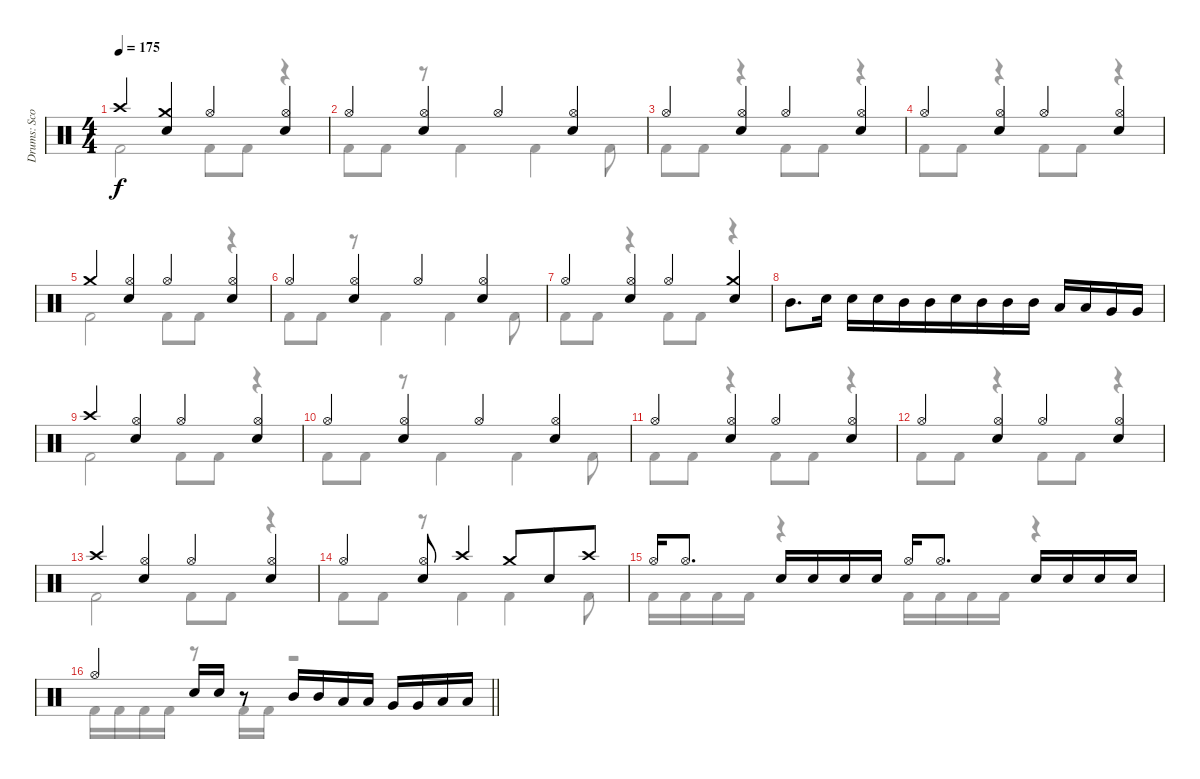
\track ("Drums: Scott" "Drums: Sco") {instrument percussion}
\staff {score}
\articulation defaults
\voice
\ts (4 4)
\tempo 175
\clef neutral
\ks c "Crash high (hit)".4{dy f}
("Crash medium (hit)" "Snare (hit) 2").4 "Hi-Hat (open)".4 ("Hi-Hat (open)" "Snare (hit) 2").4 |
"Hi-Hat (open)".4 ("Hi-Hat (open)" "Snare (hit) 2").4 "Hi-Hat (open)".4 ("Hi-Hat (open)" "Snare (hit) 2").4 |
"Hi-Hat (open)".4 ("Hi-Hat (open)" "Snare (hit) 2").4 "Hi-Hat (open)".4 ("Hi-Hat (open)" "Snare (hit) 2").4 |
"Hi-Hat (open)".4 ("Hi-Hat (open)" "Snare (hit) 2").4 "Hi-Hat (open)".4 ("Hi-Hat (open)" "Snare (hit) 2").4 |
"Crash medium (hit)".4 ("Hi-Hat (open)" "Snare (hit) 2").4 "Hi-Hat (open)".4 ("Hi-Hat (open)" "Snare (hit) 2").4 |
"Hi-Hat (open)".4 ("Hi-Hat (open)" "Snare (hit) 2").4 "Hi-Hat (open)".4 ("Hi-Hat (open)" "Snare (hit) 2").4 |
"Hi-Hat (open)".4 ("Hi-Hat (open)" "Snare (hit) 2").4 "Hi-Hat (open)".4 ("Crash medium (hit)" "Snare (hit) 2").4 |
"Mid Tom (hit)".8{d} "Snare (hit) 2".16 "Snare (hit) 2".16 "Snare (hit) 2".16 "Mid Tom (hit)".16 "Mid Tom (hit)".16{beam merge} "Snare (hit) 2".16 "Mid Tom (hit)".16 "Mid Tom (hit)".16 "Mid Tom (hit)".16 "Low Tom (hit)".16 "Low Tom (hit)".16 "Very Low Tom (hit)".16 "Very Low Tom (hit)".16 |
"Crash high (hit)".4 ("Hi-Hat (open)" "Snare (hit) 2").4 "Hi-Hat (open)".4 ("Hi-Hat (open)" "Snare (hit) 2").4 |
"Hi-Hat (open)".4 ("Hi-Hat (open)" "Snare (hit) 2").4 "Hi-Hat (open)".4 ("Hi-Hat (open)" "Snare (hit) 2").4 |
"Hi-Hat (open)".4 ("Hi-Hat (open)" "Snare (hit) 2").4 "Hi-Hat (open)".4 ("Hi-Hat (open)" "Snare (hit) 2").4 |
"Hi-Hat (open)".4 ("Hi-Hat (open)" "Snare (hit) 2").4 "Hi-Hat (open)".4 ("Hi-Hat (open)" "Snare (hit) 2").4 |
"Crash high (hit)".4 ("Hi-Hat (open)" "Snare (hit) 2").4 "Hi-Hat (open)".4 ("Hi-Hat (open)" "Snare (hit) 2").4 |
"Hi-Hat (open)".4 ("Hi-Hat (open)" "Snare (hit) 2").8 "Crash high (hit)".4 "Crash medium (hit)".8{beam merge} "Snare (hit) 2".8 "Crash high (hit)".8 |
"Hi-Hat (open)".16 "Hi-Hat (open)".8{d} "Snare (hit) 2".16 "Snare (hit) 2".16 "Snare (hit) 2".16 "Snare (hit) 2".16 "Hi-Hat (open)".16 "Hi-Hat (open)".8{d} "Snare (hit) 2".16 "Snare (hit) 2".16 "Snare (hit) 2".16 "Snare (hit) 2".16 |
\barLineRight lightlight "Hi-Hat (open)".4 "Snare (hit) 2".16 "Snare (hit) 2".16
r.8{beam merge} "Mid Tom (hit)".16 "Mid Tom (hit)".16 "Low Tom (hit)".16 "Low Tom (hit)".16 "Very Low Tom (hit)".16 "Very Low Tom (hit)".16 "Low Floor Tom (hit)".16 "Low Floor Tom (hit)".16
\voice
\clef neutral
\ottava regular
\simile none
\ks c "Kick (hit) 2".2{dy f} "Kick (hit) 2".8 "Kick (hit) 2".8
r.4 |
"Kick (hit) 2".8 "Kick (hit) 2".8 r.8 "Kick (hit) 2".4 "Kick (hit) 2".4 "Kick (hit) 2".8 |
"Kick (hit) 2".8 "Kick (hit) 2".8 r.4 "Kick (hit) 2".8 "Kick (hit) 2".8 r.4 |
"Kick (hit) 2".8 "Kick (hit) 2".8 r.4 "Kick (hit) 2".8 "Kick (hit) 2".8 r.4 |
"Kick (hit) 2".2 "Kick (hit) 2".8 "Kick (hit) 2".8 r.4 |
"Kick (hit) 2".8 "Kick (hit) 2".8 r.8 "Kick (hit) 2".4 "Kick (hit) 2".4 "Kick (hit) 2".8 |
"Kick (hit) 2".8 "Kick (hit) 2".8 r.4 "Kick (hit) 2".8 "Kick (hit) 2".8 r.4 |
|
"Kick (hit) 2".2 "Kick (hit) 2".8 "Kick (hit) 2".8 r.4 |
"Kick (hit) 2".8 "Kick (hit) 2".8 r.8 "Kick (hit) 2".4 "Kick (hit) 2".4 "Kick (hit) 2".8 |
"Kick (hit) 2".8 "Kick (hit) 2".8 r.4 "Kick (hit) 2".8 "Kick (hit) 2".8 r.4 |
"Kick (hit) 2".8 "Kick (hit) 2".8 r.4 "Kick (hit) 2".8 "Kick (hit) 2".8 r.4 |
"Kick (hit) 2".2 "Kick (hit) 2".8 "Kick (hit) 2".8 r.4 |
"Kick (hit) 2".8 "Kick (hit) 2".8 r.8 "Kick (hit) 2".4 "Kick (hit) 2".4 "Kick (hit) 2".8 |
"Kick (hit) 2".16 "Kick (hit) 2".16 "Kick (hit) 2".16 "Kick (hit) 2".16 r.4 "Kick (hit) 2".16 "Kick (hit) 2".16 "Kick (hit) 2".16 "Kick (hit) 2".16 r.4 |
\barLineRight lightlight "Kick (hit) 2".16 "Kick (hit) 2".16 "Kick (hit) 2".16 "Kick (hit) 2".16
r.8 "Kick (hit) 2".16 "Kick (hit) 2".16 r.2
